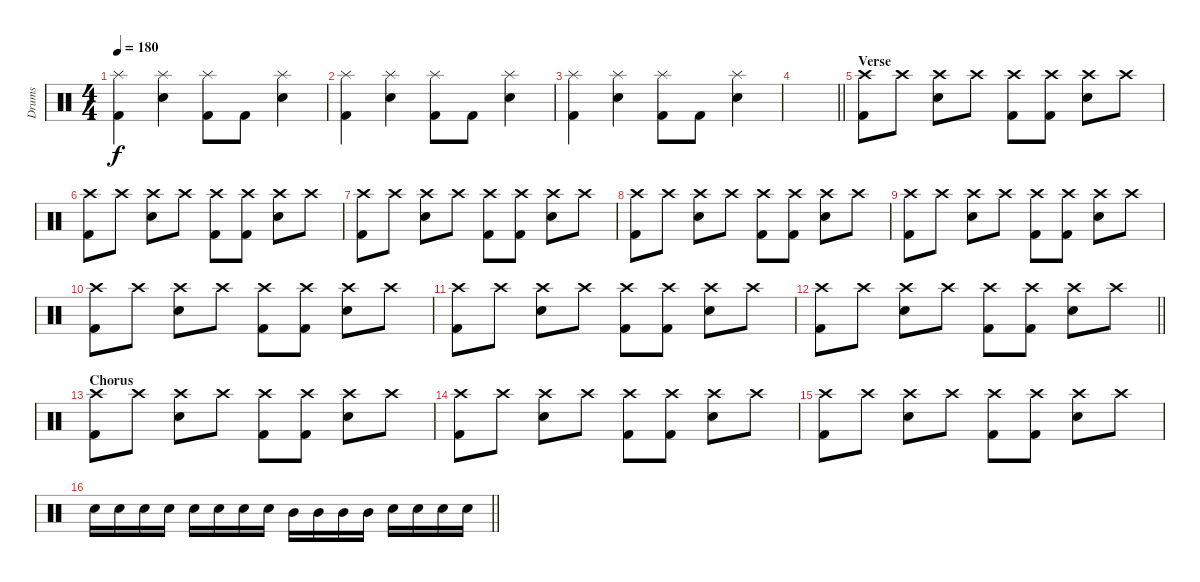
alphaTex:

\track ("Drums" "Drums") {instrument percussion}
\staff {score}
\articulation defaults
\ts (4 4)
\tempo 180
\clef neutral
\ks c
("Splash (hit)" "Kick (hit) 2").4{dy f} ("Splash (hit)" "Snare (hit) 2").4 ("Splash (hit)" "Kick (hit) 2").8 "Kick (hit) 2".8 ("Splash (hit)" "Snare (hit) 2").4 |
("Splash (hit)" "Kick (hit) 2").4 ("Splash (hit)" "Snare (hit) 2").4 ("Splash (hit)" "Kick (hit) 2").8 "Kick (hit) 2".8 ("Splash (hit)" "Snare (hit) 2").4 |
("Splash (hit)" "Kick (hit) 2").4 ("Splash (hit)" "Snare (hit) 2").4 ("Splash (hit)" "Kick (hit) 2").8 "Kick (hit) 2".8 ("Splash (hit)" "Snare (hit) 2").4 |
\barLineRight lightlight
|
\section ("" "Verse")
("Crash high (hit)" "Kick (hit) 2").8 "Crash high (hit)".8 ("Crash high (hit)" "Snare (hit) 2").8 "Crash high (hit)".8 ("Crash high (hit)" "Kick (hit) 2").8 ("Crash high (hit)" "Kick (hit) 2").8 ("Crash high (hit)" "Snare (hit) 2").8 "Crash high (hit)".8 |
("Crash high (hit)" "Kick (hit) 2").8 "Crash high (hit)".8 ("Crash high (hit)" "Snare (hit) 2").8 "Crash high (hit)".8 ("Crash high (hit)" "Kick (hit) 2").8 ("Crash high (hit)" "Kick (hit) 2").8 ("Crash high (hit)" "Snare (hit) 2").8 "Crash high (hit)".8 |
("Crash high (hit)" "Kick (hit) 2").8 "Crash high (hit)".8 ("Crash high (hit)" "Snare (hit) 2").8 "Crash high (hit)".8 ("Crash high (hit)" "Kick (hit) 2").8 ("Crash high (hit)" "Kick (hit) 2").8 ("Crash high (hit)" "Snare (hit) 2").8 "Crash high (hit)".8 |
("Crash high (hit)" "Kick (hit) 2").8 "Crash high (hit)".8 ("Crash high (hit)" "Snare (hit) 2").8 "Crash high (hit)".8 ("Crash high (hit)" "Kick (hit) 2").8 ("Crash high (hit)" "Kick (hit) 2").8 ("Crash high (hit)" "Snare (hit) 2").8 "Crash high (hit)".8 |
("Crash high (hit)" "Kick (hit) 2").8 "Crash high (hit)".8 ("Crash high (hit)" "Snare (hit) 2").8 "Crash high (hit)".8 ("Crash high (hit)" "Kick (hit) 2").8 ("Crash high (hit)" "Kick (hit) 2").8 ("Crash high (hit)" "Snare (hit) 2").8 "Crash high (hit)".8 |
("Crash high (hit)" "Kick (hit) 2").8 "Crash high (hit)".8 ("Crash high (hit)" "Snare (hit) 2").8 "Crash high (hit)".8 ("Crash high (hit)" "Kick (hit) 2").8 ("Crash high (hit)" "Kick (hit) 2").8 ("Crash high (hit)" "Snare (hit) 2").8 "Crash high (hit)".8 |
("Crash high (hit)" "Kick (hit) 2").8 "Crash high (hit)".8 ("Crash high (hit)" "Snare (hit) 2").8 "Crash high (hit)".8 ("Crash high (hit)" "Kick (hit) 2").8 ("Crash high (hit)" "Kick (hit) 2").8 ("Crash high (hit)" "Snare (hit) 2").8 "Crash high (hit)".8 |
\barLineRight lightlight
("Crash high (hit)" "Kick (hit) 2").8 "Crash high (hit)".8 ("Crash high (hit)" "Snare (hit) 2").8 "Crash high (hit)".8 ("Crash high (hit)" "Kick (hit) 2").8 ("Crash high (hit)" "Kick (hit) 2").8 ("Crash high (hit)" "Snare (hit) 2").8 "Crash high (hit)".8 |
\section ("" "Chorus")
("Crash high (hit)" "Kick (hit) 2").8 "Crash high (hit)".8 ("Crash high (hit)" "Snare (hit) 2").8 "Crash high (hit)".8 ("Crash high (hit)" "Kick (hit) 2").8 ("Crash high (hit)" "Kick (hit) 2").8 ("Crash high (hit)" "Snare (hit) 2").8 "Crash high (hit)".8 |
("Crash high (hit)" "Kick (hit) 2").8 "Crash high (hit)".8 ("Crash high (hit)" "Snare (hit) 2").8 "Crash high (hit)".8 ("Crash high (hit)" "Kick (hit) 2").8 ("Crash high (hit)" "Kick (hit) 2").8 ("Crash high (hit)" "Snare (hit) 2").8 "Crash high (hit)".8 |
("Crash high (hit)" "Kick (hit) 2").8 "Crash high (hit)".8 ("Crash high (hit)" "Snare (hit) 2").8 "Crash high (hit)".8 ("Crash high (hit)" "Kick (hit) 2").8 ("Crash high (hit)" "Kick (hit) 2").8 ("Crash high (hit)" "Snare (hit) 2").8 "Crash high (hit)".8 |
\barLineRight lightlight "Snare (hit) 2".16 "Snare (hit) 2".16 "Snare (hit) 2".16 "Snare (hit) 2".16 "Snare (hit) 2".16 "Snare (hit) 2".16 "Snare (hit) 2".16 "Snare (hit) 2".16 "Mid Tom (hit)".16 "Mid Tom (hit)".16 "Mid Tom (hit)".16 "Mid Tom (hit)".16 "Snare (hit) 2".16 "Snare (hit) 2".16 "Snare (hit) 2".16 "Snare (hit) 2".16
